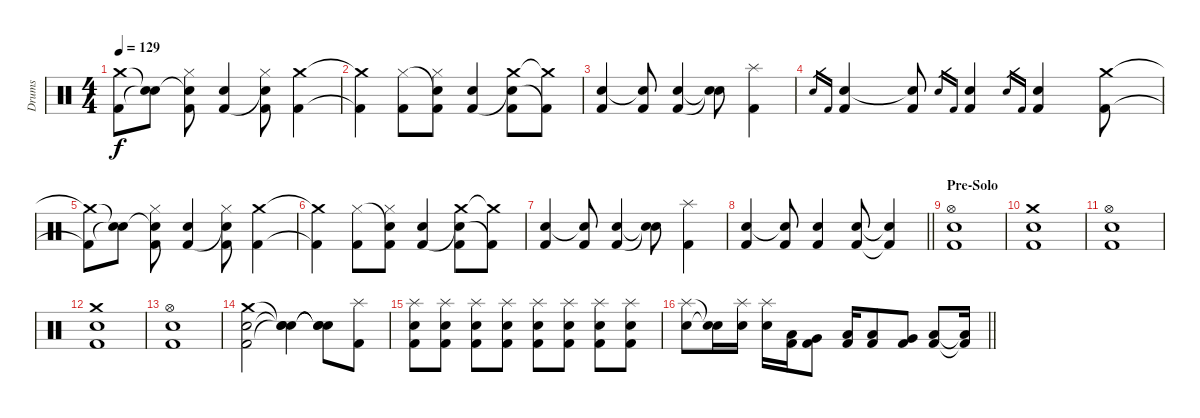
\track ("Drums" "Drums") {instrument percussion}
\staff {score}
\articulation defaults
\ts (4 4)
\tempo 129
\clef neutral
\ks c
("Crash medium (hit)"{t} "Kick (hit) 2"{t}).8{dy f} ("Snare (hit)"{t} "Snare (hit)"{t}).8 ("Snare (hit)"{t} "Hi-Hat (closed)" "Kick (hit) 2").8 ("Electric Snare (hit)" "Kick (hit) 2").4 ("Hi-Hat (closed)" "Snare (hit)"{t} "Kick (hit) 2").8 ("Crash medium (hit)" "Kick (hit) 2").4 |
("Crash medium (hit)"{t} "Kick (hit) 2"{t}).4 ("Hi-Hat (closed)" "Kick (hit) 2").8 ("Snare (hit)"{t} "Hi-Hat (closed)" "Kick (hit) 2").8 ("Electric Snare (hit)" "Kick (hit) 2").4 ("Crash medium (hit)" "Snare (hit)"{t} "Kick (hit) 2").8 ("Crash medium (hit)"{t} "Kick (hit) 2"{t}).8 |
("Electric Snare (hit)" "Kick (hit) 2").4 ("Snare (hit)"{t} "Kick (hit) 2").8 ("Electric Snare (hit)" "Kick (hit) 2").4 ("Snare (hit)"{t} "Snare (hit)"{t}).8 ("Splash (hit)" "Kick (hit) 2").4 |
"Electric Snare (hit)".16{gr} "Kick (hit) 2".16{gr} ("Electric Snare (hit)" "Kick (hit) 2").4 ("Snare (hit)"{t} "Kick (hit) 2").8 "Electric Snare (hit)".16{gr} "Kick (hit) 2".16{gr} ("Electric Snare (hit)" "Kick (hit) 2").4 "Electric Snare (hit)".16{gr} "Kick (hit) 2".16{gr} ("Electric Snare (hit)" "Kick (hit) 2").4 ("Crash medium (hit)" "Kick (hit) 2").8 |
("Crash medium (hit)"{t} "Kick (hit) 2"{t}).8 ("Snare (hit)"{t} "Snare (hit)"{t}).8 ("Snare (hit)"{t} "Hi-Hat (closed)" "Kick (hit) 2").8 ("Electric Snare (hit)" "Kick (hit) 2").4 ("Hi-Hat (closed)" "Snare (hit)"{t} "Kick (hit) 2").8 ("Crash medium (hit)" "Kick (hit) 2").4 |
("Crash medium (hit)"{t} "Kick (hit) 2"{t}).4 ("Hi-Hat (closed)" "Kick (hit) 2").8 ("Snare (hit)"{t} "Hi-Hat (closed)" "Kick (hit) 2").8 ("Electric Snare (hit)" "Kick (hit) 2").4 ("Crash medium (hit)" "Snare (hit)"{t} "Kick (hit) 2").8 ("Crash medium (hit)"{t} "Kick (hit) 2"{t}).8 |
("Electric Snare (hit)" "Kick (hit) 2").4 ("Snare (hit)"{t} "Kick (hit) 2").8 ("Electric Snare (hit)" "Kick (hit) 2").4 ("Snare (hit)"{t} "Snare (hit)"{t}).8 ("Splash (hit)" "Kick (hit) 2").4 |
\barLineRight lightlight
("Electric Snare (hit)" "Kick (hit) 2").4 ("Snare (hit)"{t} "Kick (hit) 2").8 ("Electric Snare (hit)" "Kick (hit) 2").4 ("Electric Snare (hit)" "Kick (hit) 2").8 ("Snare (hit)"{t} "Kick (hit) 2"{t}).4 |
\section ("" "Pre-Solo")
("Hi-Hat (open)" "Electric Snare (hit)" "Kick (hit) 2").1 |
("Crash medium (hit)" "Electric Snare (hit)" "Kick (hit) 2").1 |
("Hi-Hat (open)" "Electric Snare (hit)" "Kick (hit) 2").1 |
("Crash medium (hit)" "Electric Snare (hit)" "Kick (hit) 2").1 |
("Hi-Hat (open)" "Electric Snare (hit)" "Kick (hit) 2").1 |
("Crash medium (hit)" "Electric Snare (hit)" "Kick (hit) 2").2 ("Snare (hit)"{t} "Snare (hit)"{t} "Snare (hit)"{t}).4 ("Snare (hit)"{t} "Snare (hit)"{t} "Snare (hit)"{t}).8 ("Splash (hit)" "Kick (hit) 2").8 |
("Splash (hit)" "Electric Snare (hit)" "Kick (hit) 2").8 ("Splash (hit)" "Electric Snare (hit)" "Kick (hit) 2").8 ("Splash (hit)" "Electric Snare (hit)" "Kick (hit) 2").8 ("Splash (hit)" "Electric Snare (hit)" "Kick (hit) 2").8 ("Splash (hit)" "Electric Snare (hit)" "Kick (hit) 2").8 ("Splash (hit)" "Electric Snare (hit)" "Kick (hit) 2").8 ("Splash (hit)" "Electric Snare (hit)" "Kick (hit) 2").8 ("Splash (hit)" "Electric Snare (hit)" "Kick (hit) 2").8 |
\barLineRight lightlight
("Splash (hit)" "Electric Snare (hit)").8 ("Snare (hit)"{t} "Snare (hit)"{t}).16 ("Splash (hit)" "Electric Snare (hit)").16 ("Splash (hit)" "Electric Snare (hit)").16 ("Low Tom (hit)" "Kick (hit) 2").16 ("Very Low Tom (hit)" "Kick (hit) 2").8 ("Low Tom (hit)" "Kick (hit) 2").16 ("Low Tom (hit)" "Kick (hit) 2").8 ("Very Low Tom (hit)" "Kick (hit) 2").8 ("Low Floor Tom (hit)" "Kick (hit) 2").8 ("Low Floor Tom (hit)"{t} "Kick (hit) 2"{t}).16
